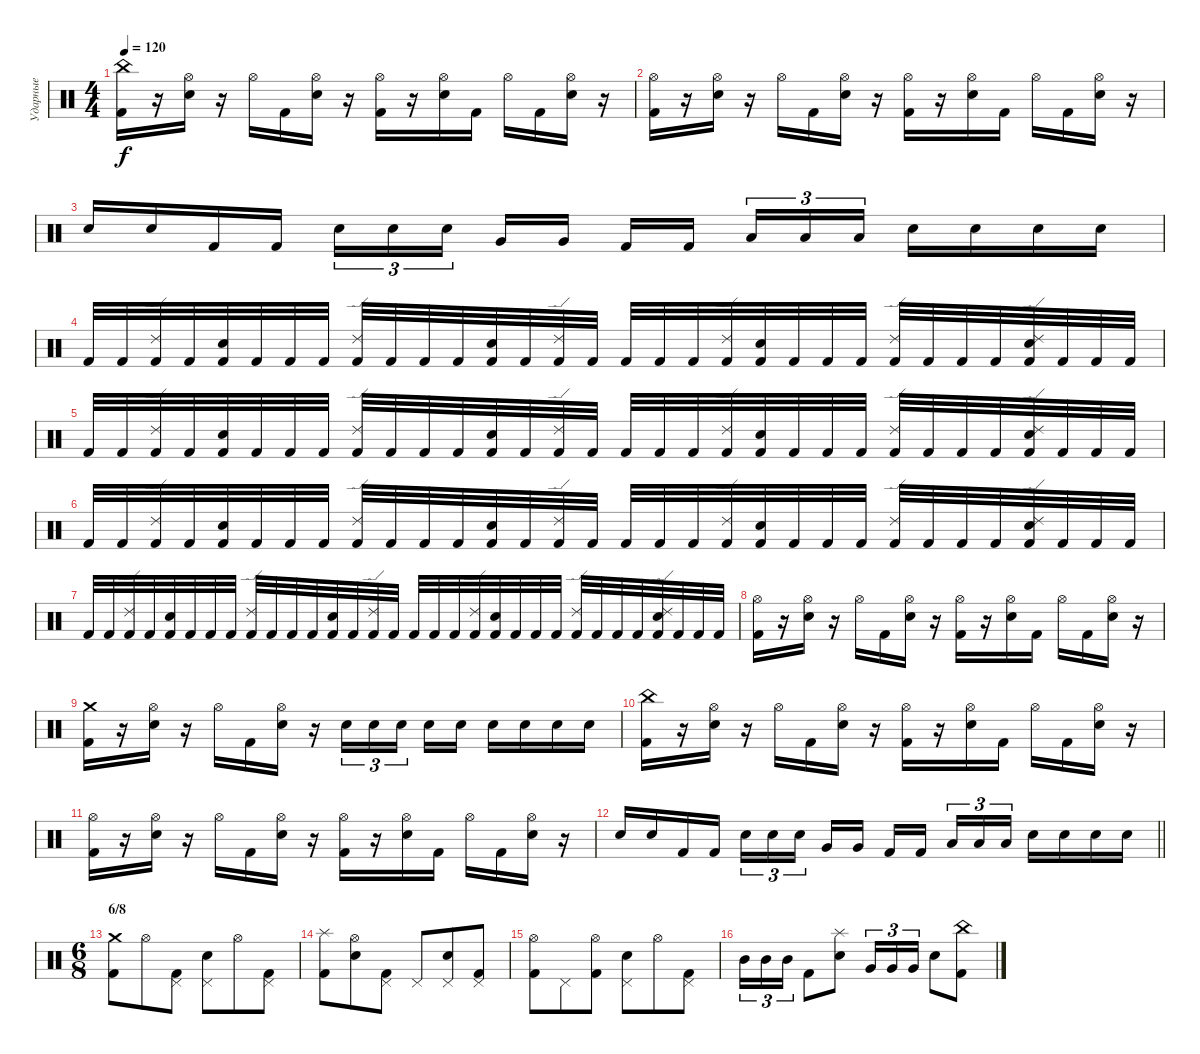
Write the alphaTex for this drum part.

\track ("Ударные" "Ударные") {instrument percussion}
\staff {score}
\articulation defaults
\ts (4 4)
\tempo 120
\clef neutral
\ks c
("China (hit)" "Kick (hit) 2").16{dy f} r.16 ("Hi-Hat (open)" "Snare (hit) 2").16 r.16 "Hi-Hat (open)".16 "Kick (hit) 2".16 ("Hi-Hat (open)" "Snare (hit) 2").16 r.16 ("Hi-Hat (open)" "Kick (hit) 2").16 r.16 ("Hi-Hat (open)" "Snare (hit) 2").16 "Kick (hit) 2".16 "Hi-Hat (open)".16 "Kick (hit) 2".16 ("Hi-Hat (open)" "Snare (hit) 2").16 r.16 |
("Hi-Hat (open)" "Kick (hit) 2").16 r.16 ("Hi-Hat (open)" "Snare (hit) 2").16 r.16 "Hi-Hat (open)".16 "Kick (hit) 2".16 ("Hi-Hat (open)" "Snare (hit) 2").16 r.16 ("Hi-Hat (open)" "Kick (hit) 2").16 r.16 ("Hi-Hat (open)" "Snare (hit) 2").16 "Kick (hit) 2".16 "Hi-Hat (open)".16 "Kick (hit) 2".16 ("Hi-Hat (open)" "Snare (hit) 2").16 r.16 |
"Snare (hit) 2".16 "Snare (hit) 2".16 "Kick (hit) 2".16 "Kick (hit) 2".16 "Electric Snare (hit)".16{tu (3 2)} "Snare (hit) 2".16{tu (3 2)} "Snare (hit) 2".16{tu (3 2)} "Very Low Tom (hit)".16 "Very Low Tom (hit)".16 "Kick (hit) 2".16 "Kick (hit) 2".16 "Low Floor Tom (hit)".16{tu (3 2)} "Low Floor Tom (hit)".16{tu (3 2)} "Low Floor Tom (hit)".16{tu (3 2)} "Electric Snare (hit)".16 "Snare (hit) 2".16 "Snare (hit) 2".16 "Snare (hit) 2".16 |
"Kick (hit) 2".32 "Kick (hit) 2".32 ("Ride (edge) 2" "Kick (hit) 2").32 "Kick (hit) 2".32 ("Snare (hit) 2" "Kick (hit) 2").32 "Kick (hit) 2".32 "Kick (hit) 2".32 "Kick (hit) 2".32 ("Ride (edge) 2" "Kick (hit) 2").32 "Kick (hit) 2".32 "Kick (hit) 2".32 "Kick (hit) 2".32 ("Snare (hit) 2" "Kick (hit) 2").32 "Kick (hit) 2".32 ("Ride (edge) 2" "Kick (hit) 2").32 "Kick (hit) 2".32 "Kick (hit) 2".32 "Kick (hit) 2".32 "Kick (hit) 2".32 ("Ride (edge) 2" "Kick (hit) 2").32 ("Snare (hit) 2" "Kick (hit) 2").32 "Kick (hit) 2".32 "Kick (hit) 2".32 "Kick (hit) 2".32 ("Ride (edge) 2" "Kick (hit) 2").32 "Kick (hit) 2".32 "Kick (hit) 2".32 "Kick (hit) 2".32 ("Ride (edge) 2" "Snare (hit) 2" "Kick (hit) 2").32 "Kick (hit) 2".32 "Kick (hit) 2".32 "Kick (hit) 2".32 |
"Kick (hit) 2".32 "Kick (hit) 2".32 ("Ride (edge) 2" "Kick (hit) 2").32 "Kick (hit) 2".32 ("Snare (hit) 2" "Kick (hit) 2").32 "Kick (hit) 2".32 "Kick (hit) 2".32 "Kick (hit) 2".32 ("Ride (edge) 2" "Kick (hit) 2").32 "Kick (hit) 2".32 "Kick (hit) 2".32 "Kick (hit) 2".32 ("Snare (hit) 2" "Kick (hit) 2").32 "Kick (hit) 2".32 ("Ride (edge) 2" "Kick (hit) 2").32 "Kick (hit) 2".32 "Kick (hit) 2".32 "Kick (hit) 2".32 "Kick (hit) 2".32 ("Ride (edge) 2" "Kick (hit) 2").32 ("Snare (hit) 2" "Kick (hit) 2").32 "Kick (hit) 2".32 "Kick (hit) 2".32 "Kick (hit) 2".32 ("Ride (edge) 2" "Kick (hit) 2").32 "Kick (hit) 2".32 "Kick (hit) 2".32 "Kick (hit) 2".32 ("Ride (edge) 2" "Snare (hit) 2" "Kick (hit) 2").32 "Kick (hit) 2".32 "Kick (hit) 2".32 "Kick (hit) 2".32 |
"Kick (hit) 2".32 "Kick (hit) 2".32 ("Ride (edge) 2" "Kick (hit) 2").32 "Kick (hit) 2".32 ("Snare (hit) 2" "Kick (hit) 2").32 "Kick (hit) 2".32 "Kick (hit) 2".32 "Kick (hit) 2".32 ("Ride (edge) 2" "Kick (hit) 2").32 "Kick (hit) 2".32 "Kick (hit) 2".32 "Kick (hit) 2".32 ("Snare (hit) 2" "Kick (hit) 2").32 "Kick (hit) 2".32 ("Ride (edge) 2" "Kick (hit) 2").32 "Kick (hit) 2".32 "Kick (hit) 2".32 "Kick (hit) 2".32 "Kick (hit) 2".32 ("Ride (edge) 2" "Kick (hit) 2").32 ("Snare (hit) 2" "Kick (hit) 2").32 "Kick (hit) 2".32 "Kick (hit) 2".32 "Kick (hit) 2".32 ("Ride (edge) 2" "Kick (hit) 2").32 "Kick (hit) 2".32 "Kick (hit) 2".32 "Kick (hit) 2".32 ("Ride (edge) 2" "Snare (hit) 2" "Kick (hit) 2").32 "Kick (hit) 2".32 "Kick (hit) 2".32 "Kick (hit) 2".32 |
"Kick (hit) 2".32 "Kick (hit) 2".32 ("Ride (edge) 2" "Kick (hit) 2").32 "Kick (hit) 2".32 ("Snare (hit) 2" "Kick (hit) 2").32 "Kick (hit) 2".32 "Kick (hit) 2".32 "Kick (hit) 2".32 ("Ride (edge) 2" "Kick (hit) 2").32 "Kick (hit) 2".32 "Kick (hit) 2".32 "Kick (hit) 2".32 ("Snare (hit) 2" "Kick (hit) 2").32 "Kick (hit) 2".32 ("Ride (edge) 2" "Kick (hit) 2").32 "Kick (hit) 2".32 "Kick (hit) 2".32 "Kick (hit) 2".32 "Kick (hit) 2".32 ("Ride (edge) 2" "Kick (hit) 2").32 ("Snare (hit) 2" "Kick (hit) 2").32 "Kick (hit) 2".32 "Kick (hit) 2".32 "Kick (hit) 2".32 ("Ride (edge) 2" "Kick (hit) 2").32 "Kick (hit) 2".32 "Kick (hit) 2".32 "Kick (hit) 2".32 ("Ride (edge) 2" "Snare (hit) 2" "Kick (hit) 2").32 "Kick (hit) 2".32 "Kick (hit) 2".32 "Kick (hit) 2".32 |
("Hi-Hat (open)" "Kick (hit) 2").16 r.16 ("Hi-Hat (open)" "Snare (hit) 2").16 r.16 "Hi-Hat (open)".16 "Kick (hit) 2".16 ("Hi-Hat (open)" "Snare (hit) 2").16 r.16 ("Hi-Hat (open)" "Kick (hit) 2").16 r.16 ("Hi-Hat (open)" "Snare (hit) 2").16 "Kick (hit) 2".16 "Hi-Hat (open)".16 "Kick (hit) 2".16 ("Hi-Hat (open)" "Snare (hit) 2").16 r.16 |
("Crash medium (hit)" "Kick (hit) 2").16 r.16 ("Hi-Hat (open)" "Snare (hit) 2").16 r.16 "Hi-Hat (open)".16 "Kick (hit) 2".16 ("Hi-Hat (open)" "Snare (hit) 2").16 r.16 "Electric Snare (hit)".16{tu (3 2)} "Snare (hit) 2".16{tu (3 2)} "Snare (hit) 2".16{tu (3 2)} "Electric Snare (hit)".16 "Snare (hit) 2".16 "Electric Snare (hit)".16 "Snare (hit) 2".16 "Snare (hit) 2".16 "Snare (hit) 2".16 |
("China (hit)" "Kick (hit) 2").16 r.16 ("Hi-Hat (open)" "Snare (hit) 2").16 r.16 "Hi-Hat (open)".16 "Kick (hit) 2".16 ("Hi-Hat (open)" "Snare (hit) 2").16 r.16 ("Hi-Hat (open)" "Kick (hit) 2").16 r.16 ("Hi-Hat (open)" "Snare (hit) 2").16 "Kick (hit) 2".16 "Hi-Hat (open)".16 "Kick (hit) 2".16 ("Hi-Hat (open)" "Snare (hit) 2").16 r.16 |
("Hi-Hat (open)" "Kick (hit) 2").16 r.16 ("Hi-Hat (open)" "Snare (hit) 2").16 r.16 "Hi-Hat (open)".16 "Kick (hit) 2".16 ("Hi-Hat (open)" "Snare (hit) 2").16 r.16 ("Hi-Hat (open)" "Kick (hit) 2").16 r.16 ("Hi-Hat (open)" "Snare (hit) 2").16 "Kick (hit) 2".16 "Hi-Hat (open)".16 "Kick (hit) 2".16 ("Hi-Hat (open)" "Snare (hit) 2").16 r.16 |
\barLineRight lightlight "Snare (hit) 2".16 "Snare (hit) 2".16 "Kick (hit) 2".16 "Kick (hit) 2".16 "Electric Snare (hit)".16{tu (3 2)} "Snare (hit) 2".16{tu (3 2)} "Snare (hit) 2".16{tu (3 2)} "Very Low Tom (hit)".16 "Very Low Tom (hit)".16 "Kick (hit) 2".16 "Kick (hit) 2".16 "Low Floor Tom (hit)".16{tu (3 2)} "Low Floor Tom (hit)".16{tu (3 2)} "Low Floor Tom (hit)".16{tu (3 2)} "Electric Snare (hit)".16 "Snare (hit) 2".16 "Snare (hit) 2".16 "Snare (hit) 2".16
|
\ts (6 8)
\section ("" "6/8")
("Crash medium (hit)" "Kick (hit) 2").8 "Hi-Hat (open)".8 ("Pedal Hi-Hat (hit)" "Kick (hit) 2").8 ("Pedal Hi-Hat (hit)" "Snare (hit) 2").8 "Hi-Hat (open)".8 ("Pedal Hi-Hat (hit)" "Kick (hit) 2").8 |
("Splash (hit)" "Kick (hit) 2").8 ("Hi-Hat (open)" "Snare (hit) 2").8 ("Pedal Hi-Hat (hit)" "Kick (hit) 2").8 "Pedal Hi-Hat (hit)".8 ("Pedal Hi-Hat (hit)" "Snare (hit) 2").8 ("Pedal Hi-Hat (hit)" "Kick (hit) 2").8 |
("Hi-Hat (open)" "Kick (hit) 2").8 "Pedal Hi-Hat (hit)".8 ("Hi-Hat (open)" "Kick (hit) 2").8 ("Pedal Hi-Hat (hit)" "Snare (hit) 2").8 "Hi-Hat (open)".8 ("Pedal Hi-Hat (hit)" "Kick (hit) 2").8 |
"Mid Tom (hit)".16{tu (3 2)} "Mid Tom (hit)".16{tu (3 2)} "Mid Tom (hit)".16{tu (3 2)} "Kick (hit) 2".8 ("Splash (hit)" "Snare (hit) 2").8 "Very Low Tom (hit)".16{tu (3 2)} "Very Low Tom (hit)".16{tu (3 2)} "Very Low Tom (hit)".16{tu (3 2)} "Snare (hit) 2".8 ("China (hit)" "Kick (hit) 2").8
